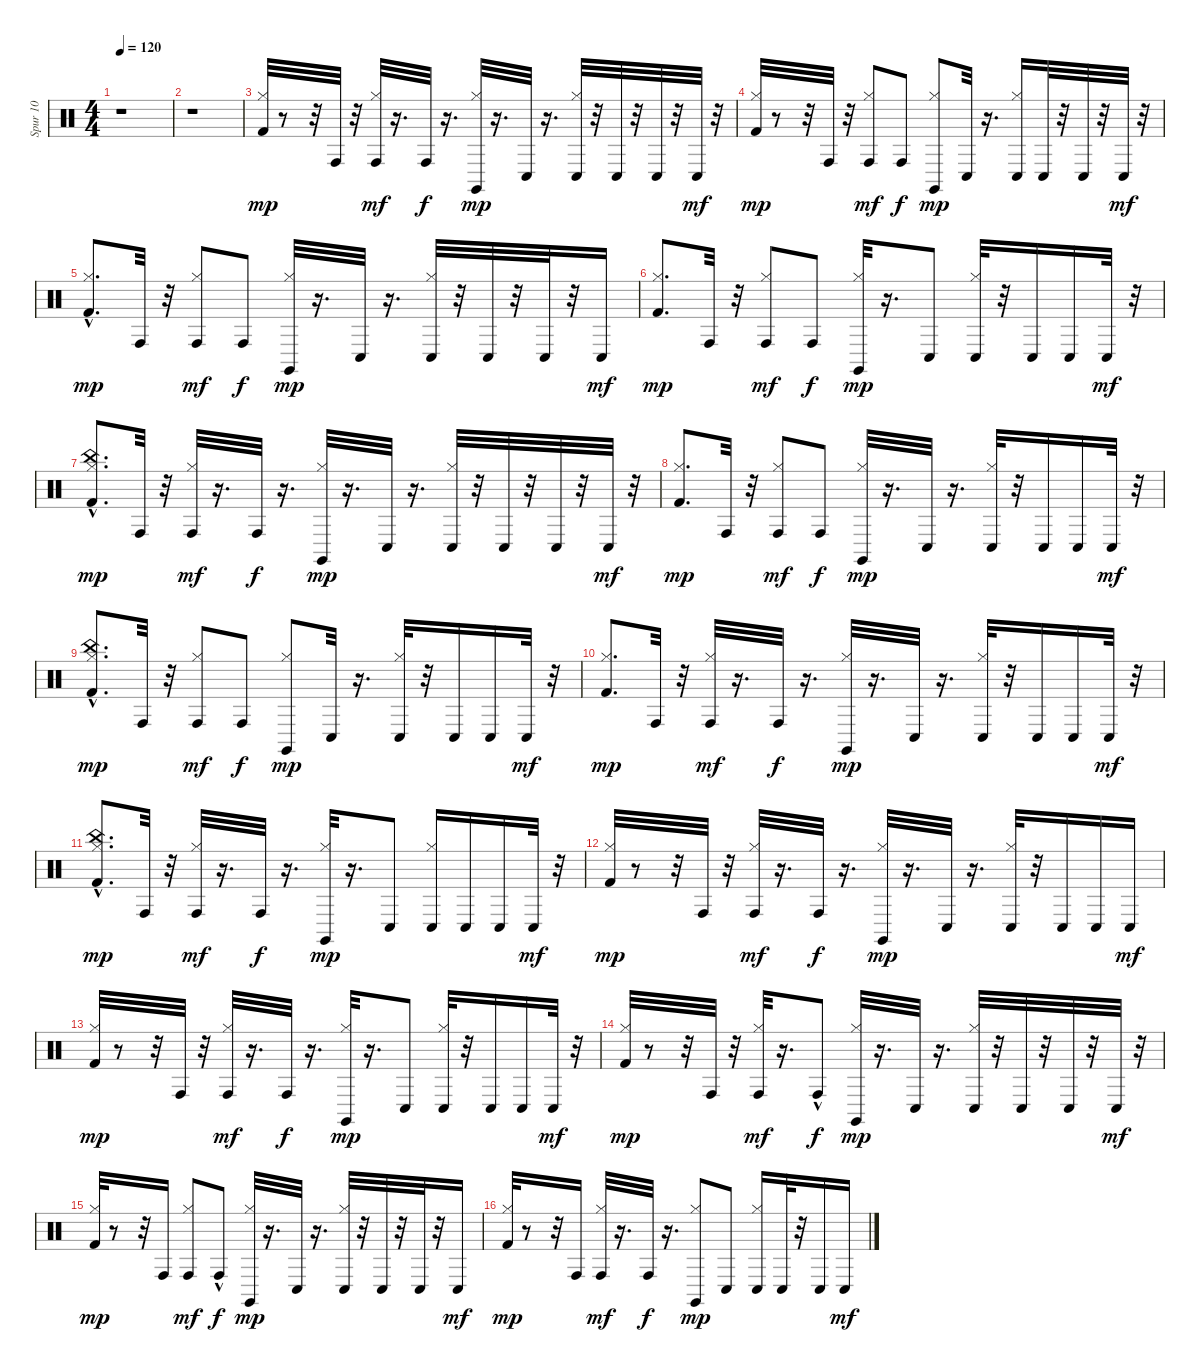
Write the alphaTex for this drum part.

\track ("Spur 10" "Spur 10") {instrument percussion}
\staff {score}
\articulation defaults
\ts (4 4)
\tempo 120
\clef neutral
\ks c
r.1{dy mp} |
r.1 |
("Hi-Hat (closed)" "Kick (hit) 2").32{volume 14 balance 8} r.8 r.32 "Conga high (hit)".32 r.32 ("Hi-Hat (closed)" "Conga high (hit)").32{dy mf} r.16{d} "Conga high (hit)".32{dy f} r.16{d} ("Hi-Hat (closed)" "Claves (hit)").32{dy mp} r.16{d} "Conga low (hit)".32 r.16{d} ("Hi-Hat (closed)" "Conga low (hit)").32 r.32 "Conga low (hit)".32 r.32 "Conga low (hit)".32 r.32 "Conga low (hit)".32{dy mf} r.32 |
("Hi-Hat (closed)" "Kick (hit) 2").32{dy mp} r.8 r.32 "Conga high (hit)".32 r.32 ("Hi-Hat (closed)" "Conga high (hit)").8{dy mf} "Conga high (hit)".8{dy f} ("Hi-Hat (closed)" "Claves (hit)").8{dy mp} "Conga low (hit)".32 r.16{d} ("Hi-Hat (closed)" "Conga low (hit)").16 "Conga low (hit)".32 r.32 "Conga low (hit)".32 r.32 "Conga low (hit)".32{dy mf} r.32 |
("Hi-Hat (closed)"{hac} "Kick (hit) 2").8{d dy mp} "Conga high (hit)".32 r.32 ("Hi-Hat (closed)" "Conga high (hit)").8{dy mf} "Conga high (hit)".8{dy f} ("Hi-Hat (closed)" "Claves (hit)").32{dy mp} r.16{d} "Conga low (hit)".32 r.16{d} ("Hi-Hat (closed)" "Conga low (hit)").32 r.32 "Conga low (hit)".32 r.32 "Conga low (hit)".32 r.32 "Conga low (hit)".16{dy mf} |
("Hi-Hat (closed)" "Kick (hit) 2").8{d dy mp} "Conga high (hit)".32 r.32 ("Hi-Hat (closed)" "Conga high (hit)").8{dy mf} "Conga high (hit)".8{dy f} ("Hi-Hat (closed)" "Claves (hit)").32{dy mp} r.16{d} "Conga low (hit)".8 ("Hi-Hat (closed)" "Conga low (hit)").32 r.32 "Conga low (hit)".16 "Conga low (hit)".16 "Conga low (hit)".32{dy mf} r.32 |
("Hi-Hat (closed)" "China (hit)" "Kick (hit) 2"{hac}).8{d dy mp} "Conga high (hit)".32 r.32 ("Hi-Hat (closed)" "Conga high (hit)").32{dy mf} r.16{d} "Conga high (hit)".32{dy f} r.16{d} ("Hi-Hat (closed)" "Claves (hit)").32{dy mp} r.16{d} "Conga low (hit)".32 r.16{d} ("Hi-Hat (closed)" "Conga low (hit)").32 r.32 "Conga low (hit)".32 r.32 "Conga low (hit)".32 r.32 "Conga low (hit)".32{dy mf} r.32 |
("Hi-Hat (closed)" "Kick (hit) 2").8{d dy mp} "Conga high (hit)".32 r.32 ("Hi-Hat (closed)" "Conga high (hit)").8{dy mf} "Conga high (hit)".8{dy f} ("Hi-Hat (closed)" "Claves (hit)").32{dy mp} r.16{d} "Conga low (hit)".32 r.16{d} ("Hi-Hat (closed)" "Conga low (hit)").32 r.32 "Conga low (hit)".16 "Conga low (hit)".16 "Conga low (hit)".32{dy mf} r.32 |
("Hi-Hat (closed)" "China (hit)" "Kick (hit) 2"{hac}).8{d dy mp} "Conga high (hit)".32 r.32 ("Hi-Hat (closed)" "Conga high (hit)").8{dy mf} "Conga high (hit)".8{dy f} ("Hi-Hat (closed)" "Claves (hit)").8{dy mp} "Conga low (hit)".32 r.16{d} ("Hi-Hat (closed)" "Conga low (hit)").32 r.32 "Conga low (hit)".16 "Conga low (hit)".16 "Conga low (hit)".32{dy mf} r.32 |
("Hi-Hat (closed)" "Kick (hit) 2").8{d dy mp} "Conga high (hit)".32 r.32 ("Hi-Hat (closed)" "Conga high (hit)").32{dy mf} r.16{d} "Conga high (hit)".32{dy f} r.16{d} ("Hi-Hat (closed)" "Claves (hit)").32{dy mp} r.16{d} "Conga low (hit)".32 r.16{d} ("Hi-Hat (closed)" "Conga low (hit)").32 r.32 "Conga low (hit)".16 "Conga low (hit)".16 "Conga low (hit)".32{dy mf} r.32 |
("Hi-Hat (closed)" "China (hit)" "Kick (hit) 2"{hac}).8{d dy mp} "Conga high (hit)".32 r.32 ("Hi-Hat (closed)" "Conga high (hit)").32{dy mf} r.16{d} "Conga high (hit)".32{dy f} r.16{d} ("Hi-Hat (closed)" "Claves (hit)").32{dy mp} r.16{d} "Conga low (hit)".8 ("Hi-Hat (closed)" "Conga low (hit)").16 "Conga low (hit)".16 "Conga low (hit)".16 "Conga low (hit)".32{dy mf} r.32 |
("Hi-Hat (closed)" "Kick (hit) 2").32{dy mp} r.8 r.32 "Conga high (hit)".32 r.32 ("Hi-Hat (closed)" "Conga high (hit)").32{dy mf} r.16{d} "Conga high (hit)".32{dy f} r.16{d} ("Hi-Hat (closed)" "Claves (hit)").32{dy mp} r.16{d} "Conga low (hit)".32 r.16{d} ("Hi-Hat (closed)" "Conga low (hit)").32 r.32 "Conga low (hit)".16 "Conga low (hit)".16 "Conga low (hit)".16{dy mf} |
("Hi-Hat (closed)" "Kick (hit) 2").32{dy mp} r.8 r.32 "Conga high (hit)".32 r.32 ("Hi-Hat (closed)" "Conga high (hit)").32{dy mf} r.16{d} "Conga high (hit)".32{dy f} r.16{d} ("Hi-Hat (closed)" "Claves (hit)").32{dy mp} r.16{d} "Conga low (hit)".8 ("Hi-Hat (closed)" "Conga low (hit)").32 r.32 "Conga low (hit)".16 "Conga low (hit)".16 "Conga low (hit)".32{dy mf} r.32 |
("Hi-Hat (closed)" "Kick (hit) 2").32{dy mp} r.8 r.32 "Conga high (hit)".32 r.32 ("Hi-Hat (closed)" "Conga high (hit)").32{dy mf} r.16{d} "Conga high (hit)"{hac}.8{dy f} ("Hi-Hat (closed)" "Claves (hit)").32{dy mp} r.16{d} "Conga low (hit)".32 r.16{d} ("Hi-Hat (closed)" "Conga low (hit)").32 r.32 "Conga low (hit)".32 r.32 "Conga low (hit)".32 r.32 "Conga low (hit)".32{dy mf} r.32 |
("Hi-Hat (closed)" "Kick (hit) 2").32{dy mp} r.8 r.32 "Conga high (hit)".16 ("Hi-Hat (closed)" "Conga high (hit)").8{dy mf} "Conga high (hit)"{hac}.8{dy f} ("Hi-Hat (closed)" "Claves (hit)").32{dy mp} r.16{d} "Conga low (hit)".32 r.16{d} ("Hi-Hat (closed)" "Conga low (hit)").32 r.32 "Conga low (hit)".32 r.32 "Conga low (hit)".32 r.32 "Conga low (hit)".16{dy mf} |
("Hi-Hat (closed)" "Kick (hit) 2").32{dy mp} r.8 r.32 "Conga high (hit)".16 ("Hi-Hat (closed)" "Conga high (hit)").32{dy mf} r.16{d} "Conga high (hit)".32{dy f} r.16{d} ("Hi-Hat (closed)" "Claves (hit)").8{dy mp} "Conga low (hit)".8 ("Hi-Hat (closed)" "Conga low (hit)").16 "Conga low (hit)".32 r.32 "Conga low (hit)".16 "Conga low (hit)".16{dy mf}
